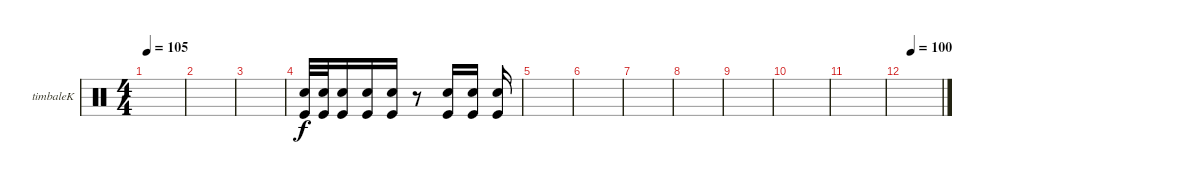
\bracketExtendMode groupsimilarinstruments
\firstSystemTrackNameOrientation horizontal
\otherSystemsTrackNameOrientation horizontal
\track ("Timbalek" "timbaleK") {instrument percussion}
\staff {score}
\articulation defaults
\ts (4 4)
\tempo 105
\clef neutral
\scale
0.333333
\ks c
|
\scale
0.333333 |
\scale
0.333333 |
\scale
0.333333 ("Snare (hit) 2" "Kick (hit)").32 ("Snare (hit) 2" "Kick (hit)").32 ("Snare (hit) 2" "Kick (hit)").16 ("Snare (hit) 2" "Kick (hit)").16 ("Snare (hit) 2" "Kick (hit)").16 r.8 ("Snare (hit) 2" "Kick (hit)").16 ("Snare (hit) 2" "Kick (hit)").16 ("Snare (hit) 2" "Kick (hit)").16 |
\scale
0.333333 |
\scale
0.333333 |
\scale
0.333333 |
\scale
0.333333 |
\scale
0.333333 |
\scale
0.333333 |
\scale
0.333333 |
\tempo (100 0.1875)
\scale
0.333333 |
\scale
0.333333 |
\scale
0.333333 |
\scale
0.333333 |
\scale
0.333333
